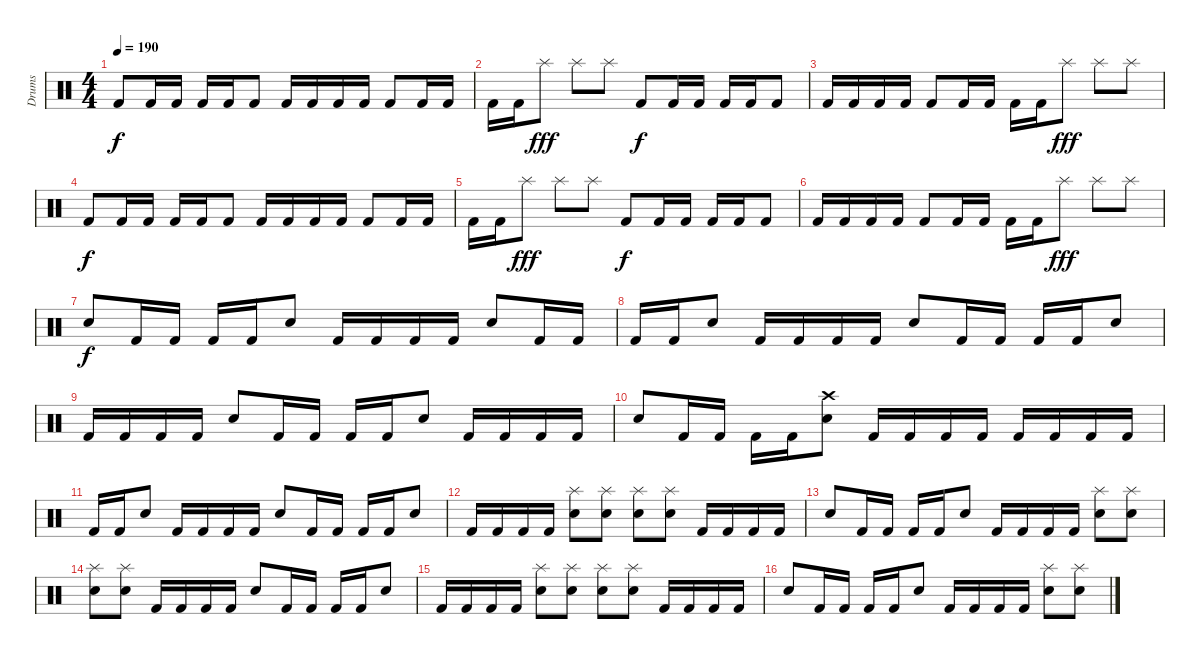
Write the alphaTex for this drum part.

\track ("Drums" "Drums") {instrument percussion}
\staff {score}
\articulation defaults
\ts (4 4)
\tempo 190
\clef neutral
\ks c "Kick (hit) 2".8{dy f} "Kick (hit) 2".16 "Kick (hit) 2".16 "Kick (hit) 2".16 "Kick (hit) 2".16 "Kick (hit) 2".8 "Kick (hit) 2".16 "Kick (hit) 2".16 "Kick (hit) 2".16 "Kick (hit) 2".16 "Kick (hit) 2".8 "Kick (hit) 2".16 "Kick (hit) 2".16
|
"Kick (hit) 2".16 "Kick (hit) 2".16 "Splash (hit)".8{dy fff} "Splash (hit)".8 "Splash (hit)".8 "Kick (hit) 2".8{dy f} "Kick (hit) 2".16 "Kick (hit) 2".16 "Kick (hit) 2".16 "Kick (hit) 2".16 "Kick (hit) 2".8 |
"Kick (hit) 2".16 "Kick (hit) 2".16 "Kick (hit) 2".16 "Kick (hit) 2".16 "Kick (hit) 2".8 "Kick (hit) 2".16 "Kick (hit) 2".16 "Kick (hit) 2".16 "Kick (hit) 2".16 "Splash (hit)".8{dy fff} "Splash (hit)".8 "Splash (hit)".8 |
"Kick (hit) 2".8{dy f} "Kick (hit) 2".16 "Kick (hit) 2".16 "Kick (hit) 2".16 "Kick (hit) 2".16 "Kick (hit) 2".8 "Kick (hit) 2".16 "Kick (hit) 2".16 "Kick (hit) 2".16 "Kick (hit) 2".16 "Kick (hit) 2".8 "Kick (hit) 2".16 "Kick (hit) 2".16 |
"Kick (hit) 2".16 "Kick (hit) 2".16 "Splash (hit)".8{dy fff} "Splash (hit)".8 "Splash (hit)".8 "Kick (hit) 2".8{dy f} "Kick (hit) 2".16 "Kick (hit) 2".16 "Kick (hit) 2".16 "Kick (hit) 2".16 "Kick (hit) 2".8 |
"Kick (hit) 2".16 "Kick (hit) 2".16 "Kick (hit) 2".16 "Kick (hit) 2".16 "Kick (hit) 2".8 "Kick (hit) 2".16 "Kick (hit) 2".16 "Kick (hit) 2".16 "Kick (hit) 2".16 "Splash (hit)".8{dy fff} "Splash (hit)".8 "Splash (hit)".8 |
"Snare (hit) 2".8{dy f} "Kick (hit) 2".16 "Kick (hit) 2".16 "Kick (hit) 2".16 "Kick (hit) 2".16 "Snare (hit) 2".8 "Kick (hit) 2".16 "Kick (hit) 2".16 "Kick (hit) 2".16 "Kick (hit) 2".16 "Snare (hit) 2".8 "Kick (hit) 2".16 "Kick (hit) 2".16 |
"Kick (hit) 2".16 "Kick (hit) 2".16 "Snare (hit) 2".8 "Kick (hit) 2".16 "Kick (hit) 2".16 "Kick (hit) 2".16 "Kick (hit) 2".16 "Snare (hit) 2".8 "Kick (hit) 2".16 "Kick (hit) 2".16 "Kick (hit) 2".16 "Kick (hit) 2".16 "Snare (hit) 2".8 |
"Kick (hit) 2".16 "Kick (hit) 2".16 "Kick (hit) 2".16 "Kick (hit) 2".16 "Snare (hit) 2".8 "Kick (hit) 2".16 "Kick (hit) 2".16 "Kick (hit) 2".16 "Kick (hit) 2".16 "Snare (hit) 2".8 "Kick (hit) 2".16 "Kick (hit) 2".16 "Kick (hit) 2".16 "Kick (hit) 2".16 |
"Snare (hit) 2".8 "Kick (hit) 2".16 "Kick (hit) 2".16 "Kick (hit) 2".16 "Kick (hit) 2".16 ("Crash high (hit)" "Snare (hit) 2").8 "Kick (hit) 2".16 "Kick (hit) 2".16 "Kick (hit) 2".16 "Kick (hit) 2".16 "Kick (hit) 2".16 "Kick (hit) 2".16 "Kick (hit) 2".16 "Kick (hit) 2".16 |
"Kick (hit) 2".16 "Kick (hit) 2".16 "Snare (hit) 2".8 "Kick (hit) 2".16 "Kick (hit) 2".16 "Kick (hit) 2".16 "Kick (hit) 2".16 "Snare (hit) 2".8 "Kick (hit) 2".16 "Kick (hit) 2".16 "Kick (hit) 2".16 "Kick (hit) 2".16 "Snare (hit) 2".8 |
"Kick (hit) 2".16 "Kick (hit) 2".16 "Kick (hit) 2".16 "Kick (hit) 2".16 ("Splash (hit)" "Snare (hit) 2").8 ("Splash (hit)" "Snare (hit) 2").8 ("Splash (hit)" "Snare (hit) 2").8 ("Splash (hit)" "Snare (hit) 2").8 "Kick (hit) 2".16 "Kick (hit) 2".16 "Kick (hit) 2".16 "Kick (hit) 2".16 |
"Snare (hit) 2".8 "Kick (hit) 2".16 "Kick (hit) 2".16 "Kick (hit) 2".16 "Kick (hit) 2".16 "Snare (hit) 2".8 "Kick (hit) 2".16 "Kick (hit) 2".16 "Kick (hit) 2".16 "Kick (hit) 2".16 ("Splash (hit)" "Snare (hit) 2").8 ("Splash (hit)" "Snare (hit) 2").8 |
("Splash (hit)" "Snare (hit) 2").8 ("Splash (hit)" "Snare (hit) 2").8 "Kick (hit) 2".16 "Kick (hit) 2".16 "Kick (hit) 2".16 "Kick (hit) 2".16 "Snare (hit) 2".8 "Kick (hit) 2".16 "Kick (hit) 2".16 "Kick (hit) 2".16 "Kick (hit) 2".16 "Snare (hit) 2".8 |
"Kick (hit) 2".16 "Kick (hit) 2".16 "Kick (hit) 2".16 "Kick (hit) 2".16 ("Splash (hit)" "Snare (hit) 2").8 ("Splash (hit)" "Snare (hit) 2").8 ("Splash (hit)" "Snare (hit) 2").8 ("Splash (hit)" "Snare (hit) 2").8 "Kick (hit) 2".16 "Kick (hit) 2".16 "Kick (hit) 2".16 "Kick (hit) 2".16 |
"Snare (hit) 2".8 "Kick (hit) 2".16 "Kick (hit) 2".16 "Kick (hit) 2".16 "Kick (hit) 2".16 "Snare (hit) 2".8 "Kick (hit) 2".16 "Kick (hit) 2".16 "Kick (hit) 2".16 "Kick (hit) 2".16 ("Splash (hit)" "Snare (hit) 2").8 ("Splash (hit)" "Snare (hit) 2").8
